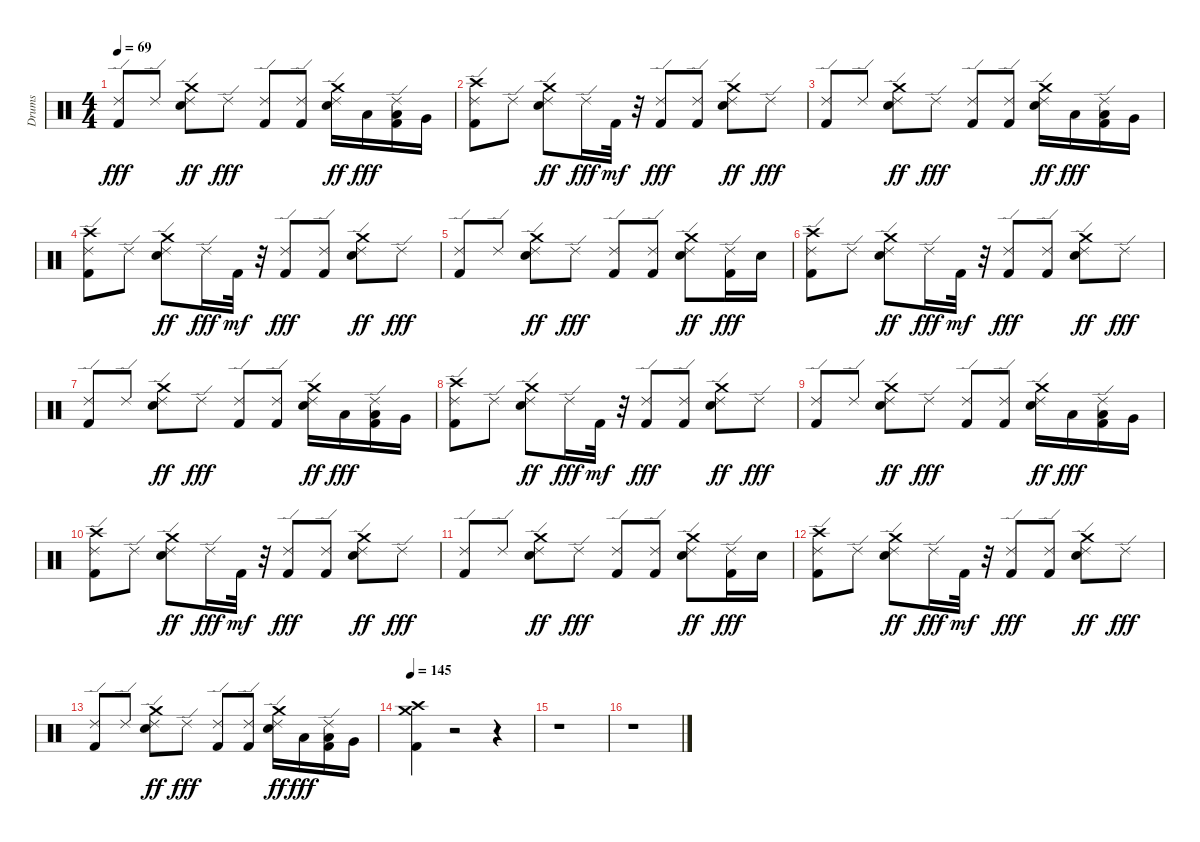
\track ("Drums" "Drums") {instrument percussion}
\staff {score}
\articulation defaults
\ts (4 4)
\tempo 69
\clef neutral
\ks c
("Kick (hit) 2" "Ride (edge) 2").8{dy fff} "Ride (edge) 2".8 ("Electric Snare (hit)" "Ride (edge) 2" "Crash medium (hit)").8{dy ff} "Ride (edge) 2".8{dy fff} ("Kick (hit) 2" "Ride (edge) 2").8 ("Kick (hit) 2" "Ride (edge) 2").8 ("Electric Snare (hit)" "Ride (edge) 2" "Crash medium (hit)").16{dy ff} "Low Tom (hit)".16{dy fff} ("Kick (hit) 2" "Low Tom (hit)" "Ride (edge) 2").16 "Very Low Tom (hit)".16 |
("Kick (hit) 2" "Ride (edge) 2" "Crash high (hit)").8 "Ride (edge) 2".8 ("Electric Snare (hit)" "Ride (edge) 2" "Crash medium (hit)").8{dy ff} "Ride (edge) 2".16{dy fff} "Kick (hit) 2".32{dy mf} r.32 ("Kick (hit) 2" "Ride (edge) 2").8{dy fff} ("Kick (hit) 2" "Ride (edge) 2").8 ("Electric Snare (hit)" "Ride (edge) 2" "Crash medium (hit)").8{dy ff} "Ride (edge) 2".8{dy fff} |
("Kick (hit) 2" "Ride (edge) 2").8 "Ride (edge) 2".8 ("Electric Snare (hit)" "Ride (edge) 2" "Crash medium (hit)").8{dy ff} "Ride (edge) 2".8{dy fff} ("Kick (hit) 2" "Ride (edge) 2").8 ("Kick (hit) 2" "Ride (edge) 2").8 ("Electric Snare (hit)" "Ride (edge) 2" "Crash medium (hit)").16{dy ff} "Low Tom (hit)".16{dy fff} ("Kick (hit) 2" "Low Tom (hit)" "Ride (edge) 2").16 "Very Low Tom (hit)".16 |
("Kick (hit) 2" "Ride (edge) 2" "Crash high (hit)").8 "Ride (edge) 2".8 ("Electric Snare (hit)" "Ride (edge) 2" "Crash medium (hit)").8{dy ff} "Ride (edge) 2".16{dy fff} "Kick (hit) 2".32{dy mf} r.32 ("Kick (hit) 2" "Ride (edge) 2").8{dy fff} ("Kick (hit) 2" "Ride (edge) 2").8 ("Electric Snare (hit)" "Ride (edge) 2" "Crash medium (hit)").8{dy ff} "Ride (edge) 2".8{dy fff} |
("Kick (hit) 2" "Ride (edge) 2").8 "Ride (edge) 2".8 ("Electric Snare (hit)" "Ride (edge) 2" "Crash medium (hit)").8{dy ff} "Ride (edge) 2".8{dy fff} ("Kick (hit) 2" "Ride (edge) 2").8 ("Kick (hit) 2" "Ride (edge) 2").8 ("Electric Snare (hit)" "Ride (edge) 2" "Crash medium (hit)").8{dy ff} ("Kick (hit) 2" "Ride (edge) 2").16{dy fff} "Electric Snare (hit)".16 |
("Kick (hit) 2" "Ride (edge) 2" "Crash high (hit)").8 "Ride (edge) 2".8 ("Electric Snare (hit)" "Ride (edge) 2" "Crash medium (hit)").8{dy ff} "Ride (edge) 2".16{dy fff} "Kick (hit) 2".32{dy mf} r.32 ("Kick (hit) 2" "Ride (edge) 2").8{dy fff} ("Kick (hit) 2" "Ride (edge) 2").8 ("Electric Snare (hit)" "Ride (edge) 2" "Crash medium (hit)").8{dy ff} "Ride (edge) 2".8{dy fff} |
("Kick (hit) 2" "Ride (edge) 2").8 "Ride (edge) 2".8 ("Electric Snare (hit)" "Ride (edge) 2" "Crash medium (hit)").8{dy ff} "Ride (edge) 2".8{dy fff} ("Kick (hit) 2" "Ride (edge) 2").8 ("Kick (hit) 2" "Ride (edge) 2").8 ("Electric Snare (hit)" "Ride (edge) 2" "Crash medium (hit)").16{dy ff} "Low Tom (hit)".16{dy fff} ("Kick (hit) 2" "Low Tom (hit)" "Ride (edge) 2").16 "Very Low Tom (hit)".16 |
("Kick (hit) 2" "Ride (edge) 2" "Crash high (hit)").8 "Ride (edge) 2".8 ("Electric Snare (hit)" "Ride (edge) 2" "Crash medium (hit)").8{dy ff} "Ride (edge) 2".16{dy fff} "Kick (hit) 2".32{dy mf} r.32 ("Kick (hit) 2" "Ride (edge) 2").8{dy fff} ("Kick (hit) 2" "Ride (edge) 2").8 ("Electric Snare (hit)" "Ride (edge) 2" "Crash medium (hit)").8{dy ff} "Ride (edge) 2".8{dy fff} |
("Kick (hit) 2" "Ride (edge) 2").8 "Ride (edge) 2".8 ("Electric Snare (hit)" "Ride (edge) 2" "Crash medium (hit)").8{dy ff} "Ride (edge) 2".8{dy fff} ("Kick (hit) 2" "Ride (edge) 2").8 ("Kick (hit) 2" "Ride (edge) 2").8 ("Electric Snare (hit)" "Ride (edge) 2" "Crash medium (hit)").16{dy ff} "Low Tom (hit)".16{dy fff} ("Kick (hit) 2" "Low Tom (hit)" "Ride (edge) 2").16 "Very Low Tom (hit)".16 |
("Kick (hit) 2" "Ride (edge) 2" "Crash high (hit)").8 "Ride (edge) 2".8 ("Electric Snare (hit)" "Ride (edge) 2" "Crash medium (hit)").8{dy ff} "Ride (edge) 2".16{dy fff} "Kick (hit) 2".32{dy mf} r.32 ("Kick (hit) 2" "Ride (edge) 2").8{dy fff} ("Kick (hit) 2" "Ride (edge) 2").8 ("Electric Snare (hit)" "Ride (edge) 2" "Crash medium (hit)").8{dy ff} "Ride (edge) 2".8{dy fff} |
("Kick (hit) 2" "Ride (edge) 2").8 "Ride (edge) 2".8 ("Electric Snare (hit)" "Ride (edge) 2" "Crash medium (hit)").8{dy ff} "Ride (edge) 2".8{dy fff} ("Kick (hit) 2" "Ride (edge) 2").8 ("Kick (hit) 2" "Ride (edge) 2").8 ("Electric Snare (hit)" "Ride (edge) 2" "Crash medium (hit)").8{dy ff} ("Kick (hit) 2" "Ride (edge) 2").16{dy fff} "Electric Snare (hit)".16 |
("Kick (hit) 2" "Ride (edge) 2" "Crash high (hit)").8 "Ride (edge) 2".8 ("Electric Snare (hit)" "Ride (edge) 2" "Crash medium (hit)").8{dy ff} "Ride (edge) 2".16{dy fff} "Kick (hit) 2".32{dy mf} r.32 ("Kick (hit) 2" "Ride (edge) 2").8{dy fff} ("Kick (hit) 2" "Ride (edge) 2").8 ("Electric Snare (hit)" "Ride (edge) 2" "Crash medium (hit)").8{dy ff} "Ride (edge) 2".8{dy fff} |
("Kick (hit) 2" "Ride (edge) 2").8 "Ride (edge) 2".8 ("Electric Snare (hit)" "Ride (edge) 2" "Crash medium (hit)").8{dy ff} "Ride (edge) 2".8{dy fff} ("Kick (hit) 2" "Ride (edge) 2").8 ("Kick (hit) 2" "Ride (edge) 2").8 ("Electric Snare (hit)" "Ride (edge) 2" "Crash medium (hit)").16{dy ff} "Low Tom (hit)".16{dy fff} ("Kick (hit) 2" "Low Tom (hit)" "Ride (edge) 2").16 "Very Low Tom (hit)".16 |
\tempo 145
("Kick (hit) 2" "Crash high (hit)" "Crash medium (hit)").4 r.2 r.4 |
r.1 |
r.1
